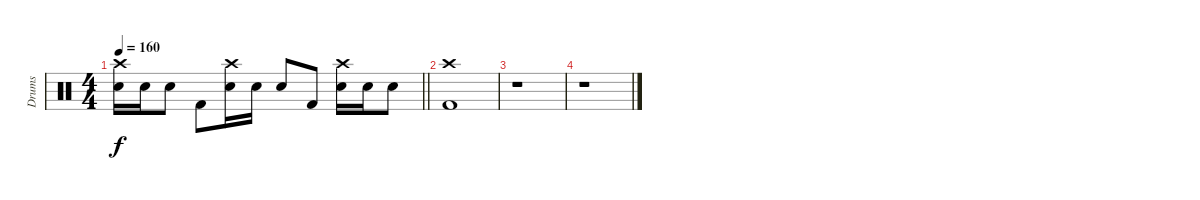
\track ("Drums" "Drums") {instrument percussion}
\staff {score}
\articulation defaults
\ts (4 4)
\tempo 160
\clef neutral
\barLineRight lightlight
\ks c
("Crash high (hit)" "Electric Snare (hit)").16{dy f} "Electric Snare (hit)".16 "Electric Snare (hit)".8 "Kick (hit) 2".8 ("Crash high (hit)" "Electric Snare (hit)").16 "Electric Snare (hit)".16 "Electric Snare (hit)".8 "Kick (hit) 2".8 ("Crash high (hit)" "Electric Snare (hit)").16 "Electric Snare (hit)".16 "Electric Snare (hit)".8 |
("Crash high (hit)" "Kick (hit) 2").1 |
r.1 |
r.1
